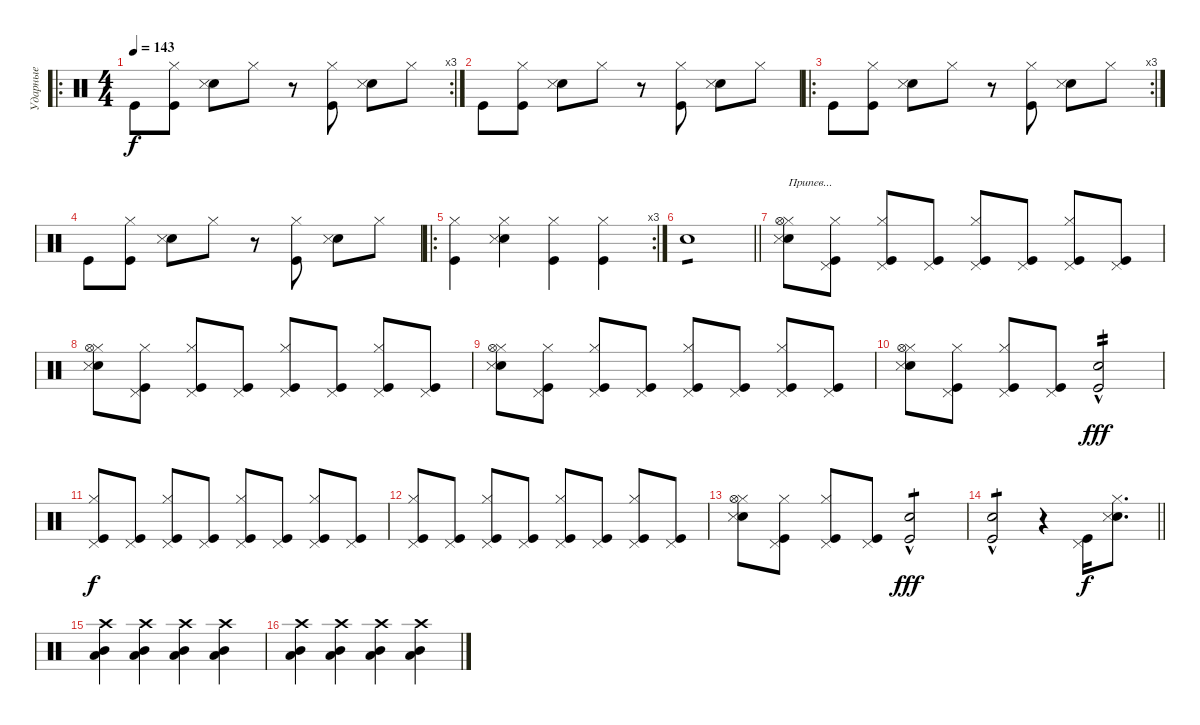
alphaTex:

\track ("Ударные" "Ударные") {instrument percussion}
\staff {score}
\articulation defaults
\ro
\rc 3
\ts (4 4)
\tempo 143
\clef neutral
\ks c "Kick (hit)".8{dy f}
("Kick (hit)" "Hi-Hat (closed)").8 ("Snare (hit) 2" "Snare (side stick) 3").8 "Hi-Hat (closed)".8 r.8 ("Kick (hit)" "Hi-Hat (closed)").8 ("Snare (hit) 2" "Snare (side stick) 3").8 "Hi-Hat (closed)".8 |
"Kick (hit)".8 ("Kick (hit)" "Hi-Hat (closed)").8 ("Snare (hit) 2" "Snare (side stick) 3").8 "Hi-Hat (closed)".8 r.8 ("Kick (hit)" "Hi-Hat (closed)").8 ("Snare (hit) 2" "Snare (side stick) 3").8 "Hi-Hat (closed)".8 |
\ro
\rc 3 "Kick (hit)".8
("Kick (hit)" "Hi-Hat (closed)").8 ("Snare (hit) 2" "Snare (side stick) 3").8 "Hi-Hat (closed)".8 r.8 ("Kick (hit)" "Hi-Hat (closed)").8 ("Snare (hit) 2" "Snare (side stick) 3").8 "Hi-Hat (closed)".8 |
"Kick (hit)".8 ("Kick (hit)" "Hi-Hat (closed)").8 ("Snare (hit) 2" "Snare (side stick) 3").8 "Hi-Hat (closed)".8 r.8 ("Kick (hit)" "Hi-Hat (closed)").8 ("Snare (hit) 2" "Snare (side stick) 3").8 "Hi-Hat (closed)".8 |
\ro
\rc 3
("Kick (hit)" "Hi-Hat (closed)").4 ("Snare (hit) 2" "Hi-Hat (closed)" "Snare (side stick) 3").4 ("Kick (hit)" "Hi-Hat (closed)").4 ("Kick (hit)" "Hi-Hat (closed)").4 |
\barLineRight lightlight "Snare (hit) 2".1{tp 1}
|
("Snare (hit) 2" "Hi-Hat (closed)" "Snare (side stick) 3" "Hi-Hat (open)").8{txt "Припев..."} ("Kick (hit)" "Pedal Hi-Hat (hit)" "Hi-Hat (closed)").8 ("Kick (hit)" "Pedal Hi-Hat (hit)" "Hi-Hat (closed)").8 ("Kick (hit)" "Pedal Hi-Hat (hit)").8 ("Kick (hit)" "Pedal Hi-Hat (hit)" "Hi-Hat (closed)").8 ("Kick (hit)" "Pedal Hi-Hat (hit)").8 ("Kick (hit)" "Pedal Hi-Hat (hit)" "Hi-Hat (closed)").8 ("Kick (hit)" "Pedal Hi-Hat (hit)").8 |
("Snare (hit) 2" "Hi-Hat (closed)" "Snare (side stick) 3" "Hi-Hat (open)").8 ("Kick (hit)" "Pedal Hi-Hat (hit)" "Hi-Hat (closed)").8 ("Kick (hit)" "Pedal Hi-Hat (hit)" "Hi-Hat (closed)").8 ("Kick (hit)" "Pedal Hi-Hat (hit)").8 ("Kick (hit)" "Pedal Hi-Hat (hit)" "Hi-Hat (closed)").8 ("Kick (hit)" "Pedal Hi-Hat (hit)").8 ("Kick (hit)" "Pedal Hi-Hat (hit)" "Hi-Hat (closed)").8 ("Kick (hit)" "Pedal Hi-Hat (hit)").8 |
("Snare (hit) 2" "Hi-Hat (closed)" "Snare (side stick) 3" "Hi-Hat (open)").8 ("Kick (hit)" "Pedal Hi-Hat (hit)" "Hi-Hat (closed)").8 ("Kick (hit)" "Pedal Hi-Hat (hit)" "Hi-Hat (closed)").8 ("Kick (hit)" "Pedal Hi-Hat (hit)").8 ("Kick (hit)" "Pedal Hi-Hat (hit)" "Hi-Hat (closed)").8 ("Kick (hit)" "Pedal Hi-Hat (hit)").8 ("Kick (hit)" "Pedal Hi-Hat (hit)" "Hi-Hat (closed)").8 ("Kick (hit)" "Pedal Hi-Hat (hit)").8 |
("Snare (hit) 2" "Hi-Hat (closed)" "Snare (side stick) 3" "Hi-Hat (open)").8 ("Kick (hit)" "Pedal Hi-Hat (hit)" "Hi-Hat (closed)").8 ("Kick (hit)" "Pedal Hi-Hat (hit)" "Hi-Hat (closed)").8 ("Kick (hit)" "Pedal Hi-Hat (hit)").8 ("Snare (hit) 2"{hac} "Kick (hit)"{hac}).2{tp 2 dy fff} |
("Kick (hit)" "Pedal Hi-Hat (hit)" "Hi-Hat (closed)").8{dy f} ("Kick (hit)" "Pedal Hi-Hat (hit)").8 ("Kick (hit)" "Pedal Hi-Hat (hit)" "Hi-Hat (closed)").8 ("Kick (hit)" "Pedal Hi-Hat (hit)").8 ("Kick (hit)" "Pedal Hi-Hat (hit)" "Hi-Hat (closed)").8 ("Kick (hit)" "Pedal Hi-Hat (hit)").8 ("Kick (hit)" "Pedal Hi-Hat (hit)" "Hi-Hat (closed)").8 ("Kick (hit)" "Pedal Hi-Hat (hit)").8 |
("Kick (hit)" "Pedal Hi-Hat (hit)" "Hi-Hat (closed)").8 ("Kick (hit)" "Pedal Hi-Hat (hit)").8 ("Kick (hit)" "Pedal Hi-Hat (hit)" "Hi-Hat (closed)").8 ("Kick (hit)" "Pedal Hi-Hat (hit)").8 ("Kick (hit)" "Pedal Hi-Hat (hit)" "Hi-Hat (closed)").8 ("Kick (hit)" "Pedal Hi-Hat (hit)").8 ("Kick (hit)" "Pedal Hi-Hat (hit)" "Hi-Hat (closed)").8 ("Kick (hit)" "Pedal Hi-Hat (hit)").8 |
("Snare (hit) 2" "Hi-Hat (closed)" "Snare (side stick) 3" "Hi-Hat (open)").8 ("Kick (hit)" "Pedal Hi-Hat (hit)" "Hi-Hat (closed)").8 ("Kick (hit)" "Pedal Hi-Hat (hit)" "Hi-Hat (closed)").8 ("Kick (hit)" "Pedal Hi-Hat (hit)").8 ("Snare (hit) 2"{hac} "Kick (hit)"{hac}).2{tp 1 dy fff} |
\barLineRight lightlight
("Snare (hit) 2"{hac} "Kick (hit)"{hac}).2{tp 1} r.4 ("Kick (hit)" "Pedal Hi-Hat (hit)").16{dy f} ("Snare (hit) 2" "Hi-Hat (closed)" "Snare (side stick) 3").8{d} |
("Low Tom (hit)" "Mid Tom (hit)" "Crash high (hit)").4 ("Low Tom (hit)" "Mid Tom (hit)" "Crash high (hit)").4 ("Low Tom (hit)" "Mid Tom (hit)" "Crash high (hit)").4 ("Low Tom (hit)" "Mid Tom (hit)" "Crash high (hit)").4 |
("Low Tom (hit)" "Mid Tom (hit)" "Crash high (hit)").4 ("Low Tom (hit)" "Mid Tom (hit)" "Crash high (hit)").4 ("Low Tom (hit)" "Mid Tom (hit)" "Crash high (hit)").4 ("Low Tom (hit)" "Mid Tom (hit)" "Crash high (hit)").4
